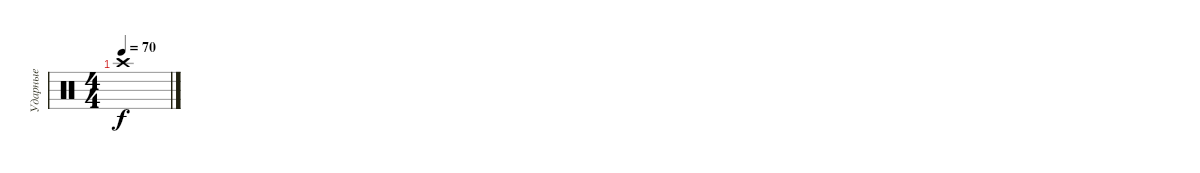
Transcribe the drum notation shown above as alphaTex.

\track ("Ударные" "Ударные") {instrument percussion}
\staff {score}
\articulation defaults
\ts (4 4)
\tempo 70
\clef neutral
\ks c "Crash high (hit)".1{dy f}
